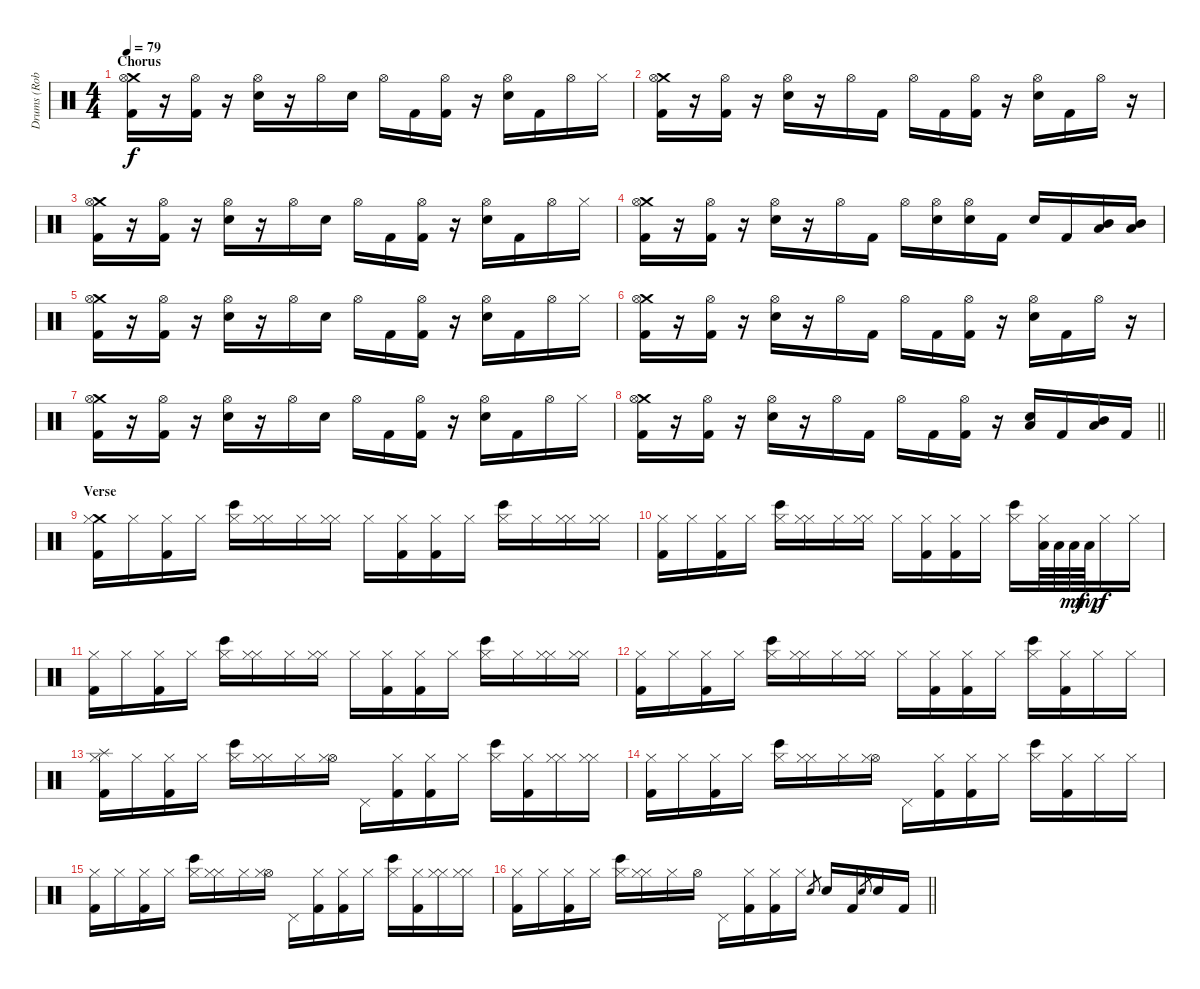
\track ("Drums (Rob Bourdon)" "Drums (Rob") {instrument percussion}
\staff {score}
\articulation defaults
\ts (4 4)
\section ("" "Chorus")
\tempo 79
\clef neutral
\ks c
("Crash medium (hit)" "Hi-Hat (open)" "Kick (hit) 2").16{dy f} r.16 ("Hi-Hat (open)" "Kick (hit) 2").16 r.16 ("Hi-Hat (open)" "Electric Snare (hit)").16 r.16 "Hi-Hat (open)".16 "Electric Snare (hit)".16 "Hi-Hat (open)".16 "Kick (hit) 2".16 ("Hi-Hat (open)" "Kick (hit) 2").16 r.16 ("Hi-Hat (open)" "Electric Snare (hit)").16 "Kick (hit) 2".16 "Hi-Hat (open)".16 "Hi-Hat (closed)".16 |
("Crash medium (hit)" "Hi-Hat (open)" "Kick (hit) 2").16 r.16 ("Hi-Hat (open)" "Kick (hit) 2").16 r.16 ("Hi-Hat (open)" "Electric Snare (hit)").16 r.16 "Hi-Hat (open)".16 "Kick (hit) 2".16 "Hi-Hat (open)".16 "Kick (hit) 2".16 ("Hi-Hat (open)" "Kick (hit) 2").16 r.16 ("Hi-Hat (open)" "Electric Snare (hit)").16 "Kick (hit) 2".16 "Hi-Hat (open)".16 r.16 |
("Crash medium (hit)" "Hi-Hat (open)" "Kick (hit) 2").16 r.16 ("Hi-Hat (open)" "Kick (hit) 2").16 r.16 ("Hi-Hat (open)" "Electric Snare (hit)").16 r.16 "Hi-Hat (open)".16 "Electric Snare (hit)".16 "Hi-Hat (open)".16 "Kick (hit) 2".16 ("Hi-Hat (open)" "Kick (hit) 2").16 r.16 ("Hi-Hat (open)" "Electric Snare (hit)").16 "Kick (hit) 2".16 "Hi-Hat (open)".16 "Hi-Hat (closed)".16 |
("Crash medium (hit)" "Hi-Hat (open)" "Kick (hit) 2").16 r.16 ("Hi-Hat (open)" "Kick (hit) 2").16 r.16 ("Hi-Hat (open)" "Electric Snare (hit)").16 r.16 "Hi-Hat (open)".16 "Kick (hit) 2".16 "Hi-Hat (open)".16 ("Hi-Hat (open)" "Electric Snare (hit)").16 ("Hi-Hat (open)" "Electric Snare (hit)").16 "Kick (hit) 2".16 "Electric Snare (hit)".16 "Kick (hit) 2".16 ("Mid Tom (hit)" "Low Tom (hit)").16 ("Mid Tom (hit)" "Low Tom (hit)").16 |
("Crash medium (hit)" "Hi-Hat (open)" "Kick (hit) 2").16 r.16 ("Hi-Hat (open)" "Kick (hit) 2").16 r.16 ("Hi-Hat (open)" "Electric Snare (hit)").16 r.16 "Hi-Hat (open)".16 "Electric Snare (hit)".16 "Hi-Hat (open)".16 "Kick (hit) 2".16 ("Hi-Hat (open)" "Kick (hit) 2").16 r.16 ("Hi-Hat (open)" "Electric Snare (hit)").16 "Kick (hit) 2".16 "Hi-Hat (open)".16 "Hi-Hat (closed)".16 |
("Crash medium (hit)" "Hi-Hat (open)" "Kick (hit) 2").16 r.16 ("Hi-Hat (open)" "Kick (hit) 2").16 r.16 ("Hi-Hat (open)" "Electric Snare (hit)").16 r.16 "Hi-Hat (open)".16 "Kick (hit) 2".16 "Hi-Hat (open)".16 "Kick (hit) 2".16 ("Hi-Hat (open)" "Kick (hit) 2").16 r.16 ("Hi-Hat (open)" "Electric Snare (hit)").16 "Kick (hit) 2".16 "Hi-Hat (open)".16 r.16 |
("Crash medium (hit)" "Hi-Hat (open)" "Kick (hit) 2").16 r.16 ("Hi-Hat (open)" "Kick (hit) 2").16 r.16 ("Hi-Hat (open)" "Electric Snare (hit)").16 r.16 "Hi-Hat (open)".16 "Electric Snare (hit)".16 "Hi-Hat (open)".16 "Kick (hit) 2".16 ("Hi-Hat (open)" "Kick (hit) 2").16 r.16 ("Hi-Hat (open)" "Electric Snare (hit)").16 "Kick (hit) 2".16 "Hi-Hat (open)".16 "Hi-Hat (closed)".16 |
\barLineRight lightlight
("Crash medium (hit)" "Hi-Hat (open)" "Kick (hit) 2").16 r.16 ("Hi-Hat (open)" "Kick (hit) 2").16 r.16 ("Hi-Hat (open)" "Electric Snare (hit)").16 r.16 "Hi-Hat (open)".16 "Kick (hit) 2".16 "Hi-Hat (open)".16 "Kick (hit) 2".16 ("Hi-Hat (open)" "Kick (hit) 2").16 r.16 ("Electric Snare (hit)" "Low Tom (hit)").16 "Kick (hit) 2".16 ("Mid Tom (hit)" "Low Tom (hit)").16 "Kick (hit) 2".16 |
\section ("" "Verse")
("Crash medium (hit)" "Hi-Hat (closed)" "Kick (hit) 2").16 "Hi-Hat (closed)".16 ("Hi-Hat (closed)" "Kick (hit) 2").16 "Hi-Hat (closed)".16 ("Hi-Hat (closed)" "Bongo High (hit)").16 ("Hi-Hat (closed)" "Hi-Hat (closed)").16 "Hi-Hat (closed)".16 ("Hi-Hat (closed)" "Hi-Hat (closed)").16 "Hi-Hat (closed)".16 ("Hi-Hat (closed)" "Kick (hit) 2").16 ("Hi-Hat (closed)" "Kick (hit) 2").16 "Hi-Hat (closed)".16 ("Hi-Hat (closed)" "Bongo High (hit)").16 "Hi-Hat (closed)".16 ("Hi-Hat (closed)" "Hi-Hat (closed)").16 ("Hi-Hat (closed)" "Hi-Hat (closed)").16 |
("Hi-Hat (closed)" "Kick (hit) 2").16 "Hi-Hat (closed)".16 ("Hi-Hat (closed)" "Kick (hit) 2").16 "Hi-Hat (closed)".16 ("Hi-Hat (closed)" "Bongo High (hit)").16 ("Hi-Hat (closed)" "Hi-Hat (closed)").16 "Hi-Hat (closed)".16 ("Hi-Hat (closed)" "Hi-Hat (closed)").16 "Hi-Hat (closed)".16 ("Hi-Hat (closed)" "Kick (hit) 2").16 ("Hi-Hat (closed)" "Kick (hit) 2").16 "Hi-Hat (closed)".16 ("Hi-Hat (closed)" "Bongo High (hit)").16 ("Hi-Hat (closed)" "Low Floor Tom (hit)").64 "Low Floor Tom (hit)".64 "Low Floor Tom (hit)".64{dy mf} "Low Floor Tom (hit)".64{dy mp} "Hi-Hat (closed)".16{dy f} "Hi-Hat (closed)".16 |
("Hi-Hat (closed)" "Kick (hit) 2").16 "Hi-Hat (closed)".16 ("Hi-Hat (closed)" "Kick (hit) 2").16 "Hi-Hat (closed)".16 ("Hi-Hat (closed)" "Bongo High (hit)").16 ("Hi-Hat (closed)" "Hi-Hat (closed)").16 "Hi-Hat (closed)".16 ("Hi-Hat (closed)" "Hi-Hat (closed)").16 "Hi-Hat (closed)".16 ("Hi-Hat (closed)" "Kick (hit) 2").16 ("Hi-Hat (closed)" "Kick (hit) 2").16 "Hi-Hat (closed)".16 ("Hi-Hat (closed)" "Bongo High (hit)").16 "Hi-Hat (closed)".16 ("Hi-Hat (closed)" "Hi-Hat (closed)").16 ("Hi-Hat (closed)" "Hi-Hat (closed)").16 |
("Hi-Hat (closed)" "Kick (hit) 2").16 "Hi-Hat (closed)".16 ("Hi-Hat (closed)" "Kick (hit) 2").16 "Hi-Hat (closed)".16 ("Hi-Hat (closed)" "Bongo High (hit)").16 ("Hi-Hat (closed)" "Hi-Hat (closed)").16 "Hi-Hat (closed)".16 ("Hi-Hat (closed)" "Hi-Hat (closed)").16 "Hi-Hat (closed)".16 ("Hi-Hat (closed)" "Kick (hit) 2").16 ("Hi-Hat (closed)" "Kick (hit) 2").16 "Hi-Hat (closed)".16 ("Hi-Hat (closed)" "Bongo High (hit)").16 ("Hi-Hat (closed)" "Kick (hit) 2").16 "Hi-Hat (closed)".16 "Hi-Hat (closed)".16 |
("Splash (hit)" "Hi-Hat (closed)" "Kick (hit) 2").16 "Hi-Hat (closed)".16 ("Hi-Hat (closed)" "Kick (hit) 2").16 "Hi-Hat (closed)".16 ("Hi-Hat (closed)" "Bongo High (hit)").16 ("Hi-Hat (closed)" "Hi-Hat (closed)").16 "Hi-Hat (closed)".16 ("Hi-Hat (open)" "Hi-Hat (closed)").16 "Pedal Hi-Hat (hit)".16 ("Hi-Hat (closed)" "Kick (hit) 2").16 ("Hi-Hat (closed)" "Kick (hit) 2").16 "Hi-Hat (closed)".16 ("Hi-Hat (closed)" "Bongo High (hit)").16 ("Hi-Hat (closed)" "Kick (hit) 2").16 ("Hi-Hat (closed)" "Hi-Hat (closed)").16 ("Hi-Hat (closed)" "Hi-Hat (closed)").16 |
("Hi-Hat (closed)" "Kick (hit) 2").16 "Hi-Hat (closed)".16 ("Hi-Hat (closed)" "Kick (hit) 2").16 "Hi-Hat (closed)".16 ("Hi-Hat (closed)" "Bongo High (hit)").16 ("Hi-Hat (closed)" "Hi-Hat (closed)").16 "Hi-Hat (closed)".16 ("Hi-Hat (open)" "Hi-Hat (closed)").16 "Pedal Hi-Hat (hit)".16 ("Hi-Hat (closed)" "Kick (hit) 2").16 ("Hi-Hat (closed)" "Kick (hit) 2").16 "Hi-Hat (closed)".16 ("Hi-Hat (closed)" "Bongo High (hit)").16 ("Hi-Hat (closed)" "Kick (hit) 2").16 "Hi-Hat (closed)".16 "Hi-Hat (closed)".16 |
("Hi-Hat (closed)" "Kick (hit) 2").16 "Hi-Hat (closed)".16 ("Hi-Hat (closed)" "Kick (hit) 2").16 "Hi-Hat (closed)".16 ("Hi-Hat (closed)" "Bongo High (hit)").16 ("Hi-Hat (closed)" "Hi-Hat (closed)").16 "Hi-Hat (closed)".16 ("Hi-Hat (open)" "Hi-Hat (closed)").16 "Pedal Hi-Hat (hit)".16 ("Hi-Hat (closed)" "Kick (hit) 2").16 ("Hi-Hat (closed)" "Kick (hit) 2").16 "Hi-Hat (closed)".16 ("Hi-Hat (closed)" "Bongo High (hit)").16 ("Hi-Hat (closed)" "Kick (hit) 2").16 ("Hi-Hat (closed)" "Hi-Hat (closed)").16 ("Hi-Hat (closed)" "Hi-Hat (closed)").16 |
\barLineRight lightlight
("Hi-Hat (closed)" "Kick (hit) 2").16 "Hi-Hat (closed)".16 ("Hi-Hat (closed)" "Kick (hit) 2").16 "Hi-Hat (closed)".16 ("Hi-Hat (closed)" "Bongo High (hit)").16 ("Hi-Hat (closed)" "Hi-Hat (closed)").16 "Hi-Hat (closed)".16 "Hi-Hat (open)".16 "Pedal Hi-Hat (hit)".16 ("Hi-Hat (closed)" "Kick (hit) 2").16 ("Hi-Hat (closed)" "Kick (hit) 2").16 "Hi-Hat (closed)".16 "Electric Snare (hit)".8{gr} "Electric Snare (hit)".16 "Kick (hit) 2".16 "Electric Snare (hit)".8{gr} "Electric Snare (hit)".16 "Kick (hit) 2".16
